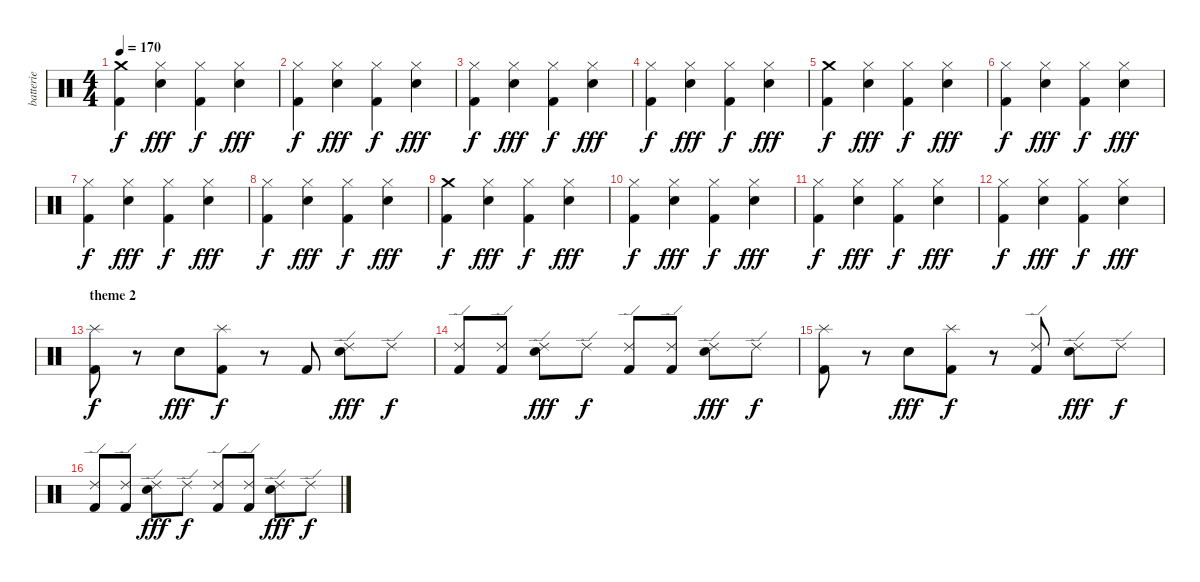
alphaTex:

\track ("batterie" "batterie") {instrument percussion}
\staff {score}
\articulation defaults
\ts (4 4)
\tempo 170
\clef neutral
\ks c
("Crash medium (hit)" "Kick (hit) 2").4{dy f} ("Hi-Hat (closed)" "Electric Snare (hit)").4{dy fff} ("Hi-Hat (closed)" "Kick (hit) 2").4{dy f} ("Hi-Hat (closed)" "Electric Snare (hit)").4{dy fff} |
("Hi-Hat (closed)" "Kick (hit) 2").4{dy f} ("Hi-Hat (closed)" "Electric Snare (hit)").4{dy fff} ("Hi-Hat (closed)" "Kick (hit) 2").4{dy f} ("Hi-Hat (closed)" "Electric Snare (hit)").4{dy fff} |
("Hi-Hat (closed)" "Kick (hit) 2").4{dy f} ("Hi-Hat (closed)" "Electric Snare (hit)").4{dy fff} ("Hi-Hat (closed)" "Kick (hit) 2").4{dy f} ("Hi-Hat (closed)" "Electric Snare (hit)").4{dy fff} |
("Hi-Hat (closed)" "Kick (hit) 2").4{dy f} ("Hi-Hat (closed)" "Electric Snare (hit)").4{dy fff} ("Hi-Hat (closed)" "Kick (hit) 2").4{dy f} ("Hi-Hat (closed)" "Electric Snare (hit)").4{dy fff} |
("Crash medium (hit)" "Kick (hit) 2").4{dy f} ("Hi-Hat (closed)" "Electric Snare (hit)").4{dy fff} ("Hi-Hat (closed)" "Kick (hit) 2").4{dy f} ("Hi-Hat (closed)" "Electric Snare (hit)").4{dy fff} |
("Hi-Hat (closed)" "Kick (hit) 2").4{dy f} ("Hi-Hat (closed)" "Electric Snare (hit)").4{dy fff} ("Hi-Hat (closed)" "Kick (hit) 2").4{dy f} ("Hi-Hat (closed)" "Electric Snare (hit)").4{dy fff} |
("Hi-Hat (closed)" "Kick (hit) 2").4{dy f} ("Hi-Hat (closed)" "Electric Snare (hit)").4{dy fff} ("Hi-Hat (closed)" "Kick (hit) 2").4{dy f} ("Hi-Hat (closed)" "Electric Snare (hit)").4{dy fff} |
("Hi-Hat (closed)" "Kick (hit) 2").4{dy f} ("Hi-Hat (closed)" "Electric Snare (hit)").4{dy fff} ("Hi-Hat (closed)" "Kick (hit) 2").4{dy f} ("Hi-Hat (closed)" "Electric Snare (hit)").4{dy fff} |
("Crash medium (hit)" "Kick (hit) 2").4{dy f} ("Hi-Hat (closed)" "Electric Snare (hit)").4{dy fff} ("Hi-Hat (closed)" "Kick (hit) 2").4{dy f} ("Hi-Hat (closed)" "Electric Snare (hit)").4{dy fff} |
("Hi-Hat (closed)" "Kick (hit) 2").4{dy f} ("Hi-Hat (closed)" "Electric Snare (hit)").4{dy fff} ("Hi-Hat (closed)" "Kick (hit) 2").4{dy f} ("Hi-Hat (closed)" "Electric Snare (hit)").4{dy fff} |
("Hi-Hat (closed)" "Kick (hit) 2").4{dy f} ("Hi-Hat (closed)" "Electric Snare (hit)").4{dy fff} ("Hi-Hat (closed)" "Kick (hit) 2").4{dy f} ("Hi-Hat (closed)" "Electric Snare (hit)").4{dy fff} |
("Hi-Hat (closed)" "Kick (hit) 2").4{dy f} ("Hi-Hat (closed)" "Electric Snare (hit)").4{dy fff} ("Hi-Hat (closed)" "Kick (hit) 2").4{dy f} ("Hi-Hat (closed)" "Electric Snare (hit)").4{dy fff} |
\section ("" "theme 2")
("Splash (hit)" "Kick (hit) 2").8{dy f} r.8 "Electric Snare (hit)".8{dy fff} ("Splash (hit)" "Kick (hit) 2").8{dy f} r.8 "Kick (hit) 2".8 ("Ride (edge) 2" "Electric Snare (hit)").8{dy fff} "Ride (edge) 2".8{dy f} |
("Ride (edge) 2" "Kick (hit) 2").8 ("Ride (edge) 2" "Kick (hit) 2").8 ("Ride (edge) 2" "Electric Snare (hit)").8{dy fff} "Ride (edge) 2".8{dy f} ("Ride (edge) 2" "Kick (hit) 2").8 ("Ride (edge) 2" "Kick (hit) 2").8 ("Ride (edge) 2" "Electric Snare (hit)").8{dy fff} "Ride (edge) 2".8{dy f} |
("Splash (hit)" "Kick (hit) 2").8 r.8 "Electric Snare (hit)".8{dy fff} ("Splash (hit)" "Kick (hit) 2").8{dy f} r.8 ("Ride (edge) 2" "Kick (hit) 2").8 ("Ride (edge) 2" "Electric Snare (hit)").8{dy fff} "Ride (edge) 2".8{dy f} |
("Ride (edge) 2" "Kick (hit) 2").8 ("Ride (edge) 2" "Kick (hit) 2").8 ("Ride (edge) 2" "Electric Snare (hit)").8{dy fff} "Ride (edge) 2".8{dy f} ("Ride (edge) 2" "Kick (hit) 2").8 ("Ride (edge) 2" "Kick (hit) 2").8 ("Ride (edge) 2" "Electric Snare (hit)").8{dy fff} "Ride (edge) 2".8{dy f}
